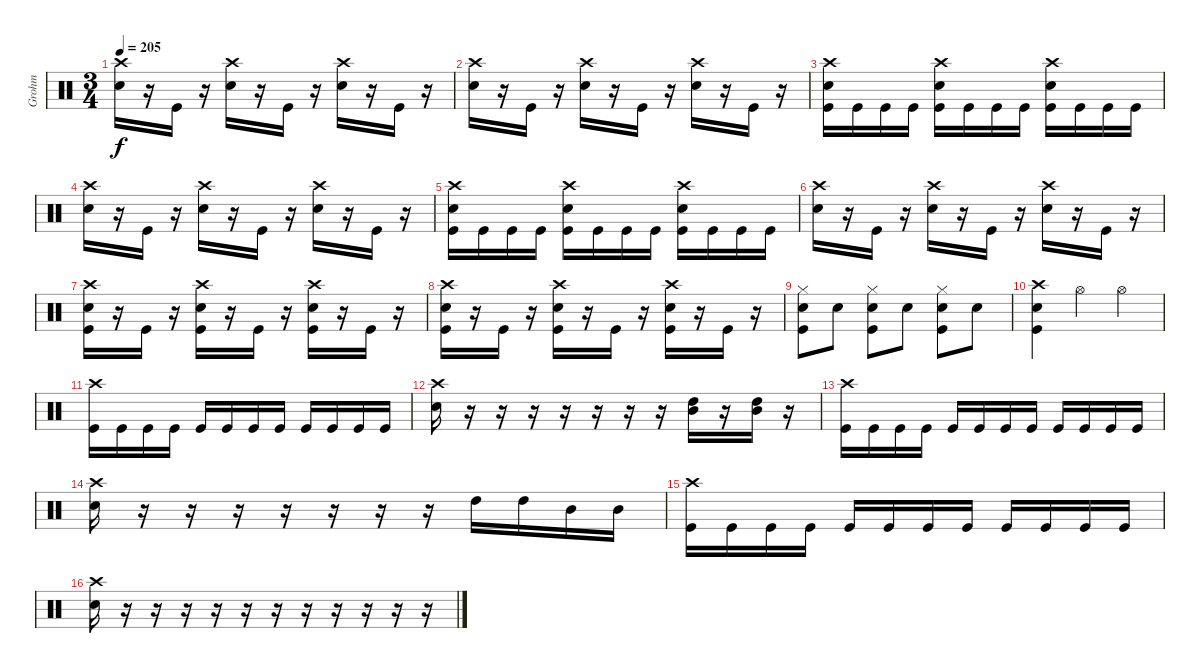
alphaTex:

\track ("Grohm" "Grohm") {instrument percussion}
\staff {score}
\articulation defaults
\ts (3 4)
\tempo 205
\clef neutral
\ks c
("Crash high (hit)" "Snare (hit) 2").16{dy f} r.16 "Kick (hit)".16 r.16 ("Crash high (hit)" "Snare (hit) 2").16 r.16 "Kick (hit)".16 r.16 ("Crash high (hit)" "Snare (hit) 2").16 r.16 "Kick (hit)".16 r.16 |
("Crash high (hit)" "Snare (hit) 2").16 r.16 "Kick (hit)".16 r.16 ("Crash high (hit)" "Snare (hit) 2").16 r.16 "Kick (hit)".16 r.16 ("Crash high (hit)" "Snare (hit) 2").16 r.16 "Kick (hit)".16 r.16 |
("Crash high (hit)" "Snare (hit) 2" "Kick (hit)").16 "Kick (hit)".16 "Kick (hit)".16 "Kick (hit)".16 ("Crash high (hit)" "Snare (hit) 2" "Kick (hit)").16 "Kick (hit)".16 "Kick (hit)".16 "Kick (hit)".16 ("Crash high (hit)" "Snare (hit) 2" "Kick (hit)").16 "Kick (hit)".16 "Kick (hit)".16 "Kick (hit)".16 |
("Crash high (hit)" "Snare (hit) 2").16 r.16 "Kick (hit)".16 r.16 ("Crash high (hit)" "Snare (hit) 2").16 r.16 "Kick (hit)".16 r.16 ("Crash high (hit)" "Snare (hit) 2").16 r.16 "Kick (hit)".16 r.16 |
("Crash high (hit)" "Snare (hit) 2" "Kick (hit)").16 "Kick (hit)".16 "Kick (hit)".16 "Kick (hit)".16 ("Crash high (hit)" "Snare (hit) 2" "Kick (hit)").16 "Kick (hit)".16 "Kick (hit)".16 "Kick (hit)".16 ("Crash high (hit)" "Snare (hit) 2" "Kick (hit)").16 "Kick (hit)".16 "Kick (hit)".16 "Kick (hit)".16 |
("Crash high (hit)" "Snare (hit) 2").16 r.16 "Kick (hit)".16 r.16 ("Crash high (hit)" "Snare (hit) 2").16 r.16 "Kick (hit)".16 r.16 ("Crash high (hit)" "Snare (hit) 2").16 r.16 "Kick (hit)".16 r.16 |
("Crash high (hit)" "Snare (hit) 2" "Kick (hit)").16 r.16 "Kick (hit)".16 r.16 ("Crash high (hit)" "Snare (hit) 2" "Kick (hit)").16 r.16 "Kick (hit)".16 r.16 ("Crash high (hit)" "Snare (hit) 2" "Kick (hit)").16 r.16 "Kick (hit)".16 r.16 |
("Crash high (hit)" "Snare (hit) 2" "Kick (hit)").16 r.16 "Kick (hit)".16 r.16 ("Crash high (hit)" "Snare (hit) 2" "Kick (hit)").16 r.16 "Kick (hit)".16 r.16 ("Crash high (hit)" "Snare (hit) 2" "Kick (hit)").16 r.16 "Kick (hit)".16 r.16 |
("Hi-Hat (closed)" "Snare (hit) 2" "Kick (hit)").8 "Snare (hit) 2".8 ("Hi-Hat (closed)" "Snare (hit) 2" "Kick (hit)").8 "Snare (hit) 2".8 ("Hi-Hat (closed)" "Snare (hit) 2" "Kick (hit)").8 "Snare (hit) 2".8 |
("Crash high (hit)" "Snare (hit) 2" "Kick (hit)").4 "Hi-Hat (open)".4 "Hi-Hat (open)".4 |
("Crash high (hit)" "Kick (hit)").16 "Kick (hit)".16 "Kick (hit)".16 "Kick (hit)".16 "Kick (hit)".16 "Kick (hit)".16 "Kick (hit)".16 "Kick (hit)".16 "Kick (hit)".16 "Kick (hit)".16 "Kick (hit)".16 "Kick (hit)".16 |
("Crash high (hit)" "Snare (hit) 2").16 r.16 r.16 r.16 r.16 r.16 r.16 r.16 ("High Tom (hit)" "Mid Tom (hit)").16 r.16 ("Mid Tom (hit)" "High Tom (hit)").16 r.16 |
("Crash high (hit)" "Kick (hit)").16 "Kick (hit)".16 "Kick (hit)".16 "Kick (hit)".16 "Kick (hit)".16 "Kick (hit)".16 "Kick (hit)".16 "Kick (hit)".16 "Kick (hit)".16 "Kick (hit)".16 "Kick (hit)".16 "Kick (hit)".16 |
("Crash high (hit)" "Snare (hit) 2").16 r.16 r.16 r.16 r.16 r.16 r.16 r.16 "High Tom (hit)".16 "High Tom (hit)".16 "Mid Tom (hit)".16 "Mid Tom (hit)".16 |
("Crash high (hit)" "Kick (hit)").16 "Kick (hit)".16 "Kick (hit)".16 "Kick (hit)".16 "Kick (hit)".16 "Kick (hit)".16 "Kick (hit)".16 "Kick (hit)".16 "Kick (hit)".16 "Kick (hit)".16 "Kick (hit)".16 "Kick (hit)".16 |
("Crash high (hit)" "Snare (hit) 2").16 r.16 r.16 r.16 r.16 r.16 r.16 r.16 r.16 r.16 r.16 r.16
